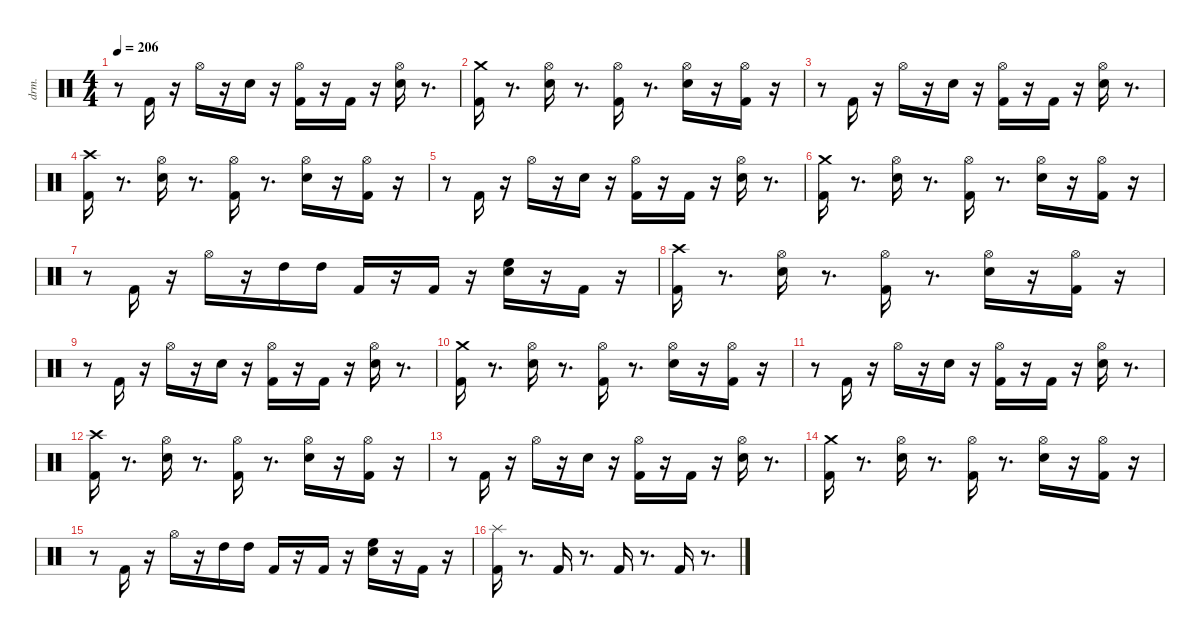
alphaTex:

\defaultSystemsLayout 4
\hideDynamics
\bracketExtendMode nobrackets
\otherSystemsTrackNameOrientation horizontal
\track ("EZdrummer 3" "drm.") {instrument percussion}
\staff {score}
\articulation defaults
\ts (4 4)
\tempo 206
\clef neutral
\ks aminor
r.8{dy fff beam Down} "Kick (hit) 2".16{dy ff beam Up} r.16{beam Up} "Hi-Hat (open)"{acc #}.16{dy mf beam Down} r.16{beam Down} "Snare (hit) 2".16{dy ff beam Down} r.16{beam Down} ("Kick (hit) 2" "Hi-Hat (open)"{acc #}).16{dy mf beam Down} r.16{beam Down} "Kick (hit) 2".16{dy fff beam Down} r.16{beam Down} ("Snare (hit) 2" "Hi-Hat (open)"{acc #}).16{dy ff beam Down} r.8{d beam Down} |
("Kick (hit) 2" "Crash medium (hit)").16{dy fff beam Down} r.8{d beam Down} ("Snare (hit) 2" "Hi-Hat (open)"{acc #}).16{dy mf beam Down} r.8{d beam Down} ("Kick (hit) 2" "Hi-Hat (open)"{acc #}).16{dy fff beam Down} r.8{d beam Down} ("Snare (hit) 2" "Hi-Hat (open)"{acc #}).16{dy f beam Down} r.16{beam Down} ("Kick (hit) 2" "Hi-Hat (open)"{acc #}).16{dy fff beam Down} r.16{beam Down} |
r.8{beam Down} "Kick (hit) 2".16{dy ff beam Up} r.16{beam Up} "Hi-Hat (open)"{acc #}.16{dy mf beam Down} r.16{beam Down} "Snare (hit) 2".16{dy ff beam Down} r.16{beam Down} ("Kick (hit) 2" "Hi-Hat (open)"{acc #}).16{beam Down} r.16{beam Down} "Kick (hit) 2".16{dy fff beam Down} r.16{beam Down} ("Snare (hit) 2" "Hi-Hat (open)"{acc #}).16{dy ff beam Down} r.8{d beam Down} |
("Kick (hit) 2" "Crash high (hit)"{acc #}).16{beam Down} r.8{d beam Down} ("Snare (hit) 2" "Hi-Hat (open)"{acc #}).16{beam Down} r.8{d beam Down} ("Kick (hit) 2" "Hi-Hat (open)"{acc #}).16{beam Down} r.8{d beam Down} ("Snare (hit) 2" "Hi-Hat (open)"{acc #}).16{beam Down} r.16{beam Down} ("Kick (hit) 2" "Hi-Hat (open)"{acc #}).16{beam Down} r.16{beam Down} |
r.8{beam Down} "Kick (hit) 2".16{beam Up} r.16{beam Up} "Hi-Hat (open)"{acc #}.16{dy mf beam Down} r.16{beam Down} "Snare (hit) 2".16{dy ff beam Down} r.16{beam Down} ("Kick (hit) 2" "Hi-Hat (open)"{acc #}).16{dy mf beam Down} r.16{beam Down} "Kick (hit) 2".16{dy fff beam Down} r.16{beam Down} ("Snare (hit) 2" "Hi-Hat (open)"{acc #}).16{dy ff beam Down} r.8{d beam Down} |
("Kick (hit) 2" "Crash medium (hit)").16{dy fff beam Down} r.8{d beam Down} ("Snare (hit) 2" "Hi-Hat (open)"{acc #}).16{dy mf beam Down} r.8{d beam Down} ("Kick (hit) 2" "Hi-Hat (open)"{acc #}).16{dy ff beam Down} r.8{d beam Down} ("Snare (hit) 2" "Hi-Hat (open)"{acc #}).16{beam Down} r.16{beam Down} ("Kick (hit) 2" "Hi-Hat (open)"{acc #}).16{beam Down} r.16{beam Down} |
r.8{beam Down} "Kick (hit) 2".16{beam Up} r.16{beam Up} "Hi-Hat (open)"{acc #}.16{dy mf beam Down} r.16{beam Down} "High Tom (hit)".16{dy fff beam Down} "High Tom (hit)".16{dy ff beam Down} "Kick (hit) 2".16{dy mf beam Up} r.16{beam Up} "Kick (hit) 2".16{dy fff beam Up} r.16{beam Up} ("Snare (hit) 2" "High Floor Tom (hit)").16{beam Down} r.16{beam Down} "Kick (hit) 2".16{dy mp beam Down} r.16{beam Down} |
("Kick (hit) 2" "Crash high (hit)"{acc #}).16{dy ff beam Down} r.8{d beam Down} ("Snare (hit) 2" "Hi-Hat (open)"{acc #}).16{beam Down} r.8{d beam Down} ("Kick (hit) 2" "Hi-Hat (open)"{acc #}).16{dy fff beam Down} r.8{d beam Down} ("Snare (hit) 2" "Hi-Hat (open)"{acc #}).16{dy f beam Down} r.16{beam Down} ("Kick (hit) 2" "Hi-Hat (open)"{acc #}).16{dy fff beam Down} r.16{beam Down} |
r.8{beam Down} "Kick (hit) 2".16{dy ff beam Up} r.16{beam Up} "Hi-Hat (open)"{acc #}.16{dy mf beam Down} r.16{beam Down} "Snare (hit) 2".16{dy ff beam Down} r.16{beam Down} ("Kick (hit) 2" "Hi-Hat (open)"{acc #}).16{beam Down} r.16{beam Down} "Kick (hit) 2".16{dy fff beam Down} r.16{beam Down} ("Snare (hit) 2" "Hi-Hat (open)"{acc #}).16{dy f beam Down} r.8{d beam Down} |
("Kick (hit) 2" "Crash medium (hit)").16{dy fff beam Down} r.8{d beam Down} ("Snare (hit) 2" "Hi-Hat (open)"{acc #}).16{dy mf beam Down} r.8{d beam Down} ("Kick (hit) 2" "Hi-Hat (open)"{acc #}).16{dy fff beam Down} r.8{d beam Down} ("Snare (hit) 2" "Hi-Hat (open)"{acc #}).16{dy ff beam Down} r.16{beam Down} ("Kick (hit) 2" "Hi-Hat (open)"{acc #}).16{beam Down} r.16{beam Down} |
r.8{beam Down} "Kick (hit) 2".16{beam Up} r.16{beam Up} "Hi-Hat (open)"{acc #}.16{dy mf beam Down} r.16{beam Down} "Snare (hit) 2".16{dy ff beam Down} r.16{beam Down} ("Kick (hit) 2" "Hi-Hat (open)"{acc #}).16{dy mf beam Down} r.16{beam Down} "Kick (hit) 2".16{dy fff beam Down} r.16{beam Down} ("Snare (hit) 2" "Hi-Hat (open)"{acc #}).16{dy ff beam Down} r.8{d beam Down} |
("Kick (hit) 2" "Crash high (hit)"{acc #}).16{beam Down} r.8{d beam Down} ("Snare (hit) 2" "Hi-Hat (open)"{acc #}).16{dy mf beam Down} r.8{d beam Down} ("Kick (hit) 2" "Hi-Hat (open)"{acc #}).16{dy ff beam Down} r.8{d beam Down} ("Snare (hit) 2" "Hi-Hat (open)"{acc #}).16{beam Down} r.16{beam Down} ("Kick (hit) 2" "Hi-Hat (open)"{acc #}).16{beam Down} r.16{beam Down} |
r.8{beam Down} "Kick (hit) 2".16{beam Up} r.16{beam Up} "Hi-Hat (open)"{acc #}.16{dy mf beam Down} r.16{beam Down} "Snare (hit) 2".16{dy ff beam Down} r.16{beam Down} ("Kick (hit) 2" "Hi-Hat (open)"{acc #}).16{dy mf beam Down} r.16{beam Down} "Kick (hit) 2".16{dy fff beam Down} r.16{beam Down} ("Snare (hit) 2" "Hi-Hat (open)"{acc #}).16{dy ff beam Down} r.8{d beam Down} |
("Kick (hit) 2" "Crash medium (hit)").16{beam Down} r.8{d beam Down} ("Snare (hit) 2" "Hi-Hat (open)"{acc #}).16{beam Down} r.8{d beam Down} ("Kick (hit) 2" "Hi-Hat (open)"{acc #}).16{beam Down} r.8{d beam Down} ("Snare (hit) 2" "Hi-Hat (open)"{acc #}).16{beam Down} r.16{beam Down} ("Kick (hit) 2" "Hi-Hat (open)"{acc #}).16{beam Down} r.16{beam Down} |
r.8{beam Down} "Kick (hit) 2".16{beam Up} r.16{beam Up} "Hi-Hat (open)"{acc #}.16{dy mf beam Down} r.16{beam Down} "High Tom (hit)".16{dy fff beam Down} "High Tom (hit)".16{dy ff beam Down} "Kick (hit) 2".16{dy mf beam Up} r.16{beam Up} "Kick (hit) 2".16{dy fff beam Up} r.16{beam Up} ("Snare (hit) 2" "High Floor Tom (hit)").16{beam Down} r.16{beam Down} "Kick (hit) 2".16{dy f beam Down} r.16{beam Down} |
("Kick (hit) 2" "Splash (hit)").16{dy fff beam Down} r.8{d beam Down} "Kick (hit) 2".16{dy mp beam Up} r.8{d beam Up} "Kick (hit) 2".16{dy f beam Up} r.8{d beam Up} "Kick (hit) 2".16{dy mf beam Up} r.8{d beam Up}
